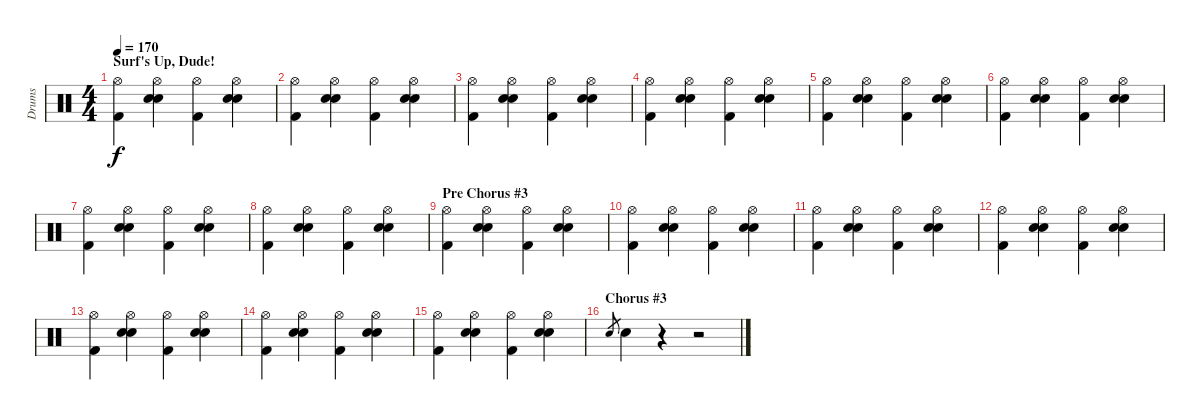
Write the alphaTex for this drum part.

\track ("Drums" "Drums") {instrument percussion}
\staff {score}
\articulation defaults
\ts (4 4)
\section ("" "Surf's Up, Dude!")
\tempo 170
\clef neutral
\ks c
("Hi-Hat (open)" "Kick (hit) 2").4{dy f} ("Hi-Hat (open)" "Electric Snare (hit)" "Hand Clap (hit)").4 ("Hi-Hat (open)" "Kick (hit) 2").4 ("Hi-Hat (open)" "Electric Snare (hit)" "Hand Clap (hit)").4 |
("Hi-Hat (open)" "Kick (hit) 2").4 ("Hi-Hat (open)" "Electric Snare (hit)" "Hand Clap (hit)").4 ("Hi-Hat (open)" "Kick (hit) 2").4 ("Hi-Hat (open)" "Electric Snare (hit)" "Hand Clap (hit)").4 |
("Hi-Hat (open)" "Kick (hit) 2").4 ("Hi-Hat (open)" "Electric Snare (hit)" "Hand Clap (hit)").4 ("Hi-Hat (open)" "Kick (hit) 2").4 ("Hi-Hat (open)" "Electric Snare (hit)" "Hand Clap (hit)").4 |
("Hi-Hat (open)" "Kick (hit) 2").4 ("Hi-Hat (open)" "Electric Snare (hit)" "Hand Clap (hit)").4 ("Hi-Hat (open)" "Kick (hit) 2").4 ("Hi-Hat (open)" "Electric Snare (hit)" "Hand Clap (hit)").4 |
("Hi-Hat (open)" "Kick (hit) 2").4 ("Hi-Hat (open)" "Electric Snare (hit)" "Hand Clap (hit)").4 ("Hi-Hat (open)" "Kick (hit) 2").4 ("Hi-Hat (open)" "Electric Snare (hit)" "Hand Clap (hit)").4 |
("Hi-Hat (open)" "Kick (hit) 2").4 ("Hi-Hat (open)" "Electric Snare (hit)" "Hand Clap (hit)").4 ("Hi-Hat (open)" "Kick (hit) 2").4 ("Hi-Hat (open)" "Electric Snare (hit)" "Hand Clap (hit)").4 |
("Hi-Hat (open)" "Kick (hit) 2").4 ("Hi-Hat (open)" "Electric Snare (hit)" "Hand Clap (hit)").4 ("Hi-Hat (open)" "Kick (hit) 2").4 ("Hi-Hat (open)" "Electric Snare (hit)" "Hand Clap (hit)").4 |
("Hi-Hat (open)" "Kick (hit) 2").4 ("Hi-Hat (open)" "Electric Snare (hit)" "Hand Clap (hit)").4 ("Hi-Hat (open)" "Kick (hit) 2").4 ("Hi-Hat (open)" "Electric Snare (hit)" "Hand Clap (hit)").4 |
\section ("" "Pre Chorus #3")
("Hi-Hat (open)" "Kick (hit) 2").4 ("Hi-Hat (open)" "Electric Snare (hit)" "Hand Clap (hit)").4 ("Hi-Hat (open)" "Kick (hit) 2").4 ("Hi-Hat (open)" "Electric Snare (hit)" "Hand Clap (hit)").4 |
("Hi-Hat (open)" "Kick (hit) 2").4 ("Hi-Hat (open)" "Electric Snare (hit)" "Hand Clap (hit)").4 ("Hi-Hat (open)" "Kick (hit) 2").4 ("Hi-Hat (open)" "Electric Snare (hit)" "Hand Clap (hit)").4 |
("Hi-Hat (open)" "Kick (hit) 2").4 ("Hi-Hat (open)" "Electric Snare (hit)" "Hand Clap (hit)").4 ("Hi-Hat (open)" "Kick (hit) 2").4 ("Hi-Hat (open)" "Electric Snare (hit)" "Hand Clap (hit)").4 |
("Hi-Hat (open)" "Kick (hit) 2").4 ("Hi-Hat (open)" "Electric Snare (hit)" "Hand Clap (hit)").4 ("Hi-Hat (open)" "Kick (hit) 2").4 ("Hi-Hat (open)" "Electric Snare (hit)" "Hand Clap (hit)").4 |
("Hi-Hat (open)" "Kick (hit) 2").4 ("Hi-Hat (open)" "Electric Snare (hit)" "Hand Clap (hit)").4 ("Hi-Hat (open)" "Kick (hit) 2").4 ("Hi-Hat (open)" "Electric Snare (hit)" "Hand Clap (hit)").4 |
("Hi-Hat (open)" "Kick (hit) 2").4 ("Hi-Hat (open)" "Electric Snare (hit)" "Hand Clap (hit)").4 ("Hi-Hat (open)" "Kick (hit) 2").4 ("Hi-Hat (open)" "Electric Snare (hit)" "Hand Clap (hit)").4 |
("Hi-Hat (open)" "Kick (hit) 2").4 ("Hi-Hat (open)" "Electric Snare (hit)" "Hand Clap (hit)").4 ("Hi-Hat (open)" "Kick (hit) 2").4 ("Hi-Hat (open)" "Electric Snare (hit)" "Hand Clap (hit)").4 |
\section ("" "Chorus #3")
"Electric Snare (hit)".8{gr} "Electric Snare (hit)".4 r.4 r.2
